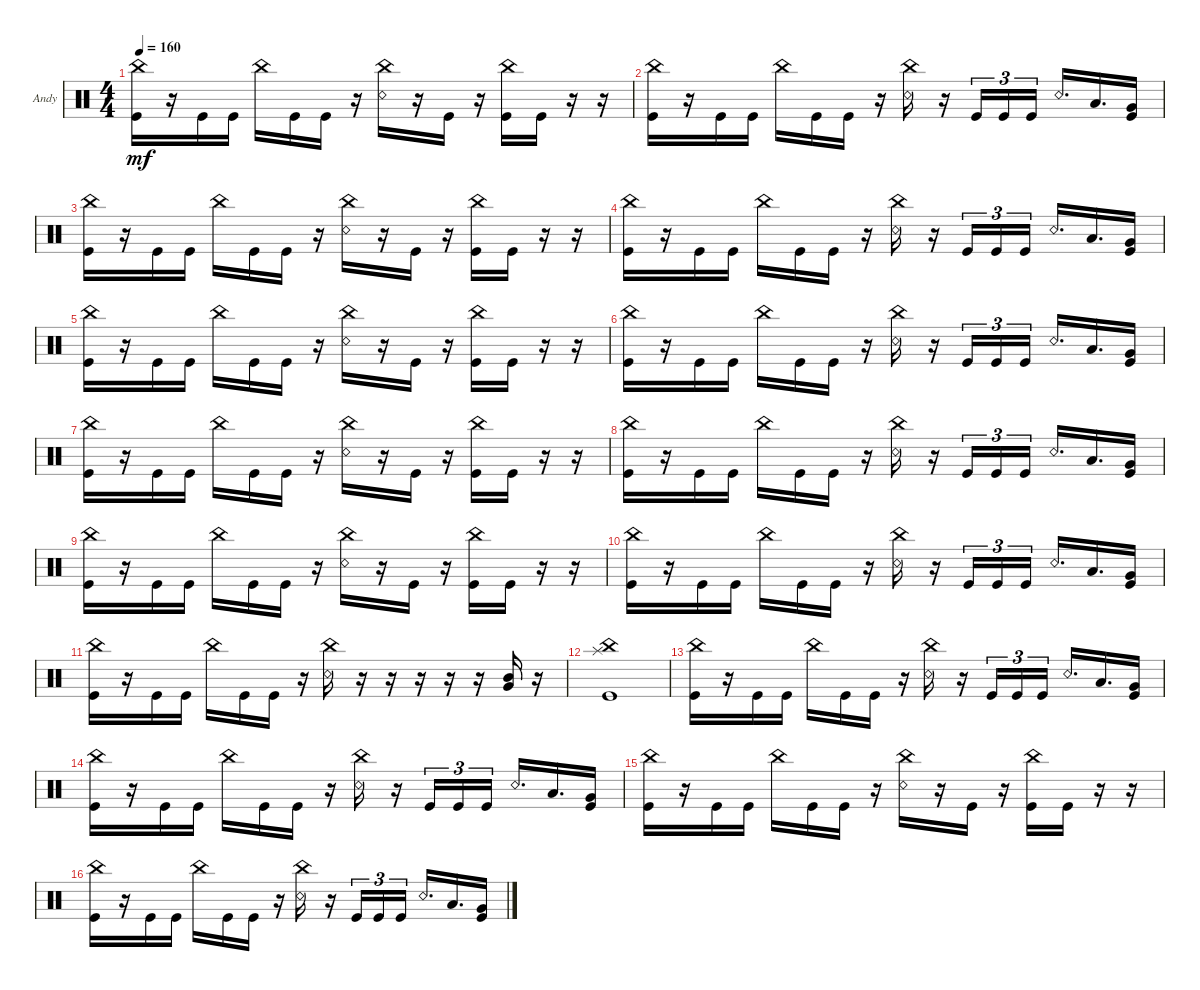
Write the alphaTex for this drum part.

\defaultSystemsLayout 4
\bracketExtendMode groupsimilarinstruments
\firstSystemTrackNameOrientation horizontal
\otherSystemsTrackNameOrientation horizontal
\track ("Drums" "Andy") {instrument percussion}
\staff {score}
\articulation defaults
\ts (4 4)
\tempo 160
\clef neutral
\ks c
("Kick (hit)" "China (hit)").16{dy mf} r.16 "Kick (hit)".16 "Kick (hit)".16 "China (hit)".16 "Kick (hit)".16 "Kick (hit)".16 r.16 ("Snare (rim shot)" "China (hit)").16 r.16 "Kick (hit)".16 r.16 ("Kick (hit)" "China (hit)").16 "Kick (hit)".16 r.16 r.16 |
("Kick (hit)" "China (hit)").16 r.16 "Kick (hit)".16 "Kick (hit)".16 "China (hit)".16 "Kick (hit)".16 "Kick (hit)".16 r.16 ("Snare (rim shot)" "China (hit)").16 r.16 "Kick (hit)".16{tu (3 2)} "Kick (hit)".16{tu (3 2)} "Kick (hit)".16{tu (3 2)} "Snare (rim shot)".16{d} "Low Tom (hit)".16{d} ("Kick (hit)" "Very Low Tom (hit)").16 |
("Kick (hit)" "China (hit)").16 r.16 "Kick (hit)".16 "Kick (hit)".16 "China (hit)".16 "Kick (hit)".16 "Kick (hit)".16 r.16 ("Snare (rim shot)" "China (hit)").16 r.16 "Kick (hit)".16 r.16 ("Kick (hit)" "China (hit)").16 "Kick (hit)".16 r.16 r.16 |
("Kick (hit)" "China (hit)").16 r.16 "Kick (hit)".16 "Kick (hit)".16 "China (hit)".16 "Kick (hit)".16 "Kick (hit)".16 r.16 ("Snare (rim shot)" "China (hit)").16 r.16 "Kick (hit)".16{tu (3 2)} "Kick (hit)".16{tu (3 2)} "Kick (hit)".16{tu (3 2)} "Snare (rim shot)".16{d} "Low Tom (hit)".16{d} ("Kick (hit)" "Very Low Tom (hit)").16 |
("Kick (hit)" "China (hit)").16 r.16 "Kick (hit)".16 "Kick (hit)".16 "China (hit)".16 "Kick (hit)".16 "Kick (hit)".16 r.16 ("Snare (rim shot)" "China (hit)").16 r.16 "Kick (hit)".16 r.16 ("Kick (hit)" "China (hit)").16 "Kick (hit)".16 r.16 r.16 |
("Kick (hit)" "China (hit)").16 r.16 "Kick (hit)".16 "Kick (hit)".16 "China (hit)".16 "Kick (hit)".16 "Kick (hit)".16 r.16 ("Snare (rim shot)" "China (hit)").16 r.16 "Kick (hit)".16{tu (3 2)} "Kick (hit)".16{tu (3 2)} "Kick (hit)".16{tu (3 2)} "Snare (rim shot)".16{d} "Low Tom (hit)".16{d} ("Kick (hit)" "Very Low Tom (hit)").16 |
("Kick (hit)" "China (hit)").16 r.16 "Kick (hit)".16 "Kick (hit)".16 "China (hit)".16 "Kick (hit)".16 "Kick (hit)".16 r.16 ("Snare (rim shot)" "China (hit)").16 r.16 "Kick (hit)".16 r.16 ("Kick (hit)" "China (hit)").16 "Kick (hit)".16 r.16 r.16 |
("Kick (hit)" "China (hit)").16 r.16 "Kick (hit)".16 "Kick (hit)".16 "China (hit)".16 "Kick (hit)".16 "Kick (hit)".16 r.16 ("Snare (rim shot)" "China (hit)").16 r.16 "Kick (hit)".16{tu (3 2)} "Kick (hit)".16{tu (3 2)} "Kick (hit)".16{tu (3 2)} "Snare (rim shot)".16{d} "Low Tom (hit)".16{d} ("Kick (hit)" "Very Low Tom (hit)").16 |
("Kick (hit)" "China (hit)").16 r.16 "Kick (hit)".16 "Kick (hit)".16 "China (hit)".16 "Kick (hit)".16 "Kick (hit)".16 r.16 ("Snare (rim shot)" "China (hit)").16 r.16 "Kick (hit)".16 r.16 ("Kick (hit)" "China (hit)").16 "Kick (hit)".16 r.16 r.16 |
("Kick (hit)" "China (hit)").16 r.16 "Kick (hit)".16 "Kick (hit)".16 "China (hit)".16 "Kick (hit)".16 "Kick (hit)".16 r.16 ("Snare (rim shot)" "China (hit)").16 r.16 "Kick (hit)".16{tu (3 2)} "Kick (hit)".16{tu (3 2)} "Kick (hit)".16{tu (3 2)} "Snare (rim shot)".16{d} "Low Tom (hit)".16{d} ("Kick (hit)" "Very Low Tom (hit)").16 |
("Kick (hit)" "China (hit)").16 r.16 "Kick (hit)".16 "Kick (hit)".16 "China (hit)".16 "Kick (hit)".16 "Kick (hit)".16 r.16 ("Snare (rim shot)" "China (hit)").16 r.16 r.16 r.16 r.16 r.16 ("Mid Tom (hit)" "Very Low Tom (hit)").16 r.16 |
("China (hit)" "Splash (hit)" "Kick (hit)").1 |
("Kick (hit)" "China (hit)").16 r.16 "Kick (hit)".16 "Kick (hit)".16 "China (hit)".16 "Kick (hit)".16 "Kick (hit)".16 r.16 ("Snare (rim shot)" "China (hit)").16 r.16 "Kick (hit)".16{tu (3 2)} "Kick (hit)".16{tu (3 2)} "Kick (hit)".16{tu (3 2)} "Snare (rim shot)".16{d} "Low Tom (hit)".16{d} ("Kick (hit)" "Very Low Tom (hit)").16 |
("Kick (hit)" "China (hit)").16 r.16 "Kick (hit)".16 "Kick (hit)".16 "China (hit)".16 "Kick (hit)".16 "Kick (hit)".16 r.16 ("Snare (rim shot)" "China (hit)").16 r.16 "Kick (hit)".16{tu (3 2)} "Kick (hit)".16{tu (3 2)} "Kick (hit)".16{tu (3 2)} "Snare (rim shot)".16{d} "Low Tom (hit)".16{d} ("Kick (hit)" "Very Low Tom (hit)").16 |
("Kick (hit)" "China (hit)").16 r.16 "Kick (hit)".16 "Kick (hit)".16 "China (hit)".16 "Kick (hit)".16 "Kick (hit)".16 r.16 ("Snare (rim shot)" "China (hit)").16 r.16 "Kick (hit)".16 r.16 ("Kick (hit)" "China (hit)").16 "Kick (hit)".16 r.16 r.16 |
("Kick (hit)" "China (hit)").16 r.16 "Kick (hit)".16 "Kick (hit)".16 "China (hit)".16 "Kick (hit)".16 "Kick (hit)".16 r.16 ("Snare (rim shot)" "China (hit)").16 r.16 "Kick (hit)".16{tu (3 2)} "Kick (hit)".16{tu (3 2)} "Kick (hit)".16{tu (3 2)} "Snare (rim shot)".16{d} "Low Tom (hit)".16{d} ("Kick (hit)" "Very Low Tom (hit)").16
